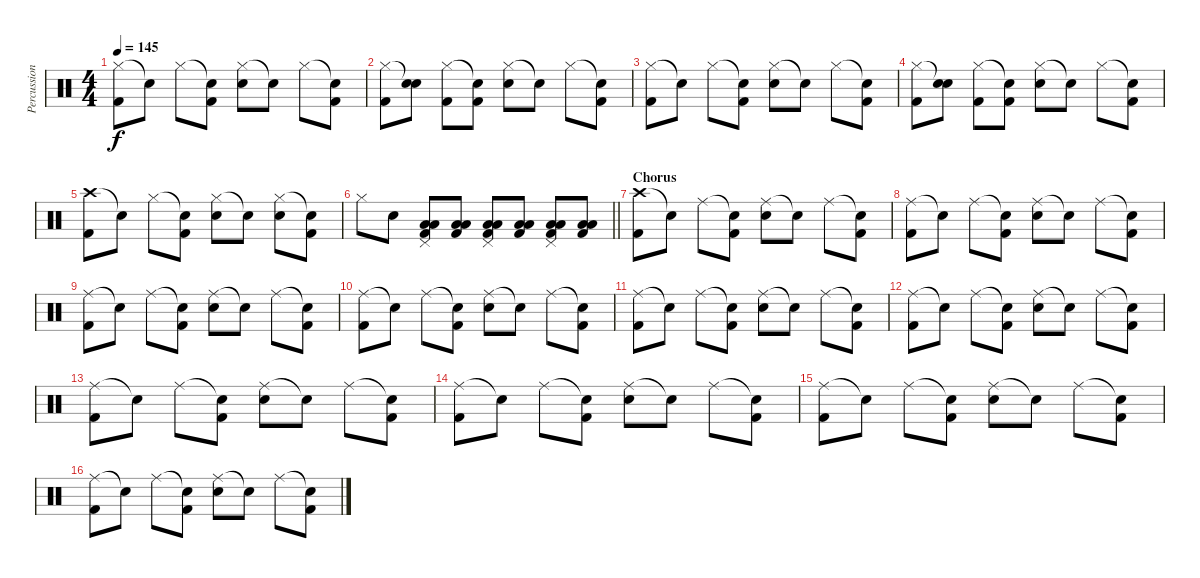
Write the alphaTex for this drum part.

\track ("Percussion" "Percussion") {instrument percussion}
\staff {score}
\articulation defaults
\ts (4 4)
\tempo 145
\clef neutral
\ks c
("Hi-Hat (closed)" "Kick (hit) 2").8{dy f} "Snare (hit)"{t}.8 "Hi-Hat (closed)".8 ("Snare (hit)"{t} "Kick (hit) 2").8 ("Hi-Hat (closed)" "Electric Snare (hit)").8 "Snare (hit)"{t}.8 "Hi-Hat (closed)".8 ("Snare (hit)"{t} "Kick (hit) 2").8 |
("Hi-Hat (closed)" "Kick (hit) 2").8 ("Snare (hit)"{t} "Electric Snare (hit)").8 ("Hi-Hat (closed)" "Kick (hit) 2").8 ("Snare (hit)"{t} "Kick (hit) 2").8 ("Hi-Hat (closed)" "Electric Snare (hit)").8 "Snare (hit)"{t}.8 "Hi-Hat (closed)".8 ("Snare (hit)"{t} "Kick (hit) 2").8 |
("Hi-Hat (closed)" "Kick (hit) 2").8 "Snare (hit)"{t}.8 "Hi-Hat (closed)".8 ("Snare (hit)"{t} "Kick (hit) 2").8 ("Hi-Hat (closed)" "Electric Snare (hit)").8 "Snare (hit)"{t}.8 "Hi-Hat (closed)".8 ("Snare (hit)"{t} "Kick (hit) 2").8 |
("Hi-Hat (closed)" "Kick (hit) 2").8 ("Snare (hit)"{t} "Electric Snare (hit)").8 ("Hi-Hat (closed)" "Kick (hit) 2").8 ("Snare (hit)"{t} "Kick (hit) 2").8 ("Hi-Hat (closed)" "Electric Snare (hit)").8 "Snare (hit)"{t}.8 "Hi-Hat (closed)".8 ("Snare (hit)"{t} "Kick (hit) 2").8 |
("Crash high (hit)" "Kick (hit) 2").8 "Snare (hit)"{t}.8 "Hi-Hat (closed)".8 ("Snare (hit)"{t} "Kick (hit) 2").8 ("Hi-Hat (closed)" "Electric Snare (hit)").8 "Snare (hit)"{t}.8 ("Hi-Hat (closed)" "Electric Snare (hit)").8 ("Snare (hit)"{t} "Kick (hit) 2").8 |
\barLineRight lightlight "Hi-Hat (closed)".8 "Electric Snare (hit)".8
("Pedal Hi-Hat (hit)" "Low Tom (hit)" "Low Floor Tom (hit)" "Kick (hit) 2").8 ("Low Tom (hit)" "Low Floor Tom (hit)" "Kick (hit) 2").8 ("Pedal Hi-Hat (hit)" "Low Tom (hit)" "Low Floor Tom (hit)" "Kick (hit) 2").8 ("Low Tom (hit)" "Low Floor Tom (hit)" "Kick (hit) 2").8 ("Pedal Hi-Hat (hit)" "Low Tom (hit)" "Low Floor Tom (hit)" "Kick (hit) 2").8 ("Low Tom (hit)" "Low Floor Tom (hit)" "Kick (hit) 2").8 |
\section ("" "Chorus")
("Crash high (hit)" "Kick (hit) 2").8 "Snare (hit)"{t}.8 "Ride (middle)".8 ("Snare (hit)"{t} "Kick (hit) 2").8 ("Ride (middle)" "Electric Snare (hit)").8 "Snare (hit)"{t}.8 "Ride (middle)".8 ("Snare (hit)"{t} "Kick (hit) 2").8 |
("Ride (middle)" "Kick (hit) 2").8 "Snare (hit)"{t}.8 "Ride (middle)".8 ("Snare (hit)"{t} "Kick (hit) 2").8 ("Ride (middle)" "Electric Snare (hit)").8 "Snare (hit)"{t}.8 "Ride (middle)".8 ("Snare (hit)"{t} "Kick (hit) 2").8 |
("Ride (middle)" "Kick (hit) 2").8 "Snare (hit)"{t}.8 "Ride (middle)".8 ("Snare (hit)"{t} "Kick (hit) 2").8 ("Ride (middle)" "Electric Snare (hit)").8 "Snare (hit)"{t}.8 "Ride (middle)".8 ("Snare (hit)"{t} "Kick (hit) 2").8 |
("Ride (middle)" "Kick (hit) 2").8 "Snare (hit)"{t}.8 "Ride (middle)".8 ("Snare (hit)"{t} "Kick (hit) 2").8 ("Ride (middle)" "Electric Snare (hit)").8 "Snare (hit)"{t}.8 "Ride (middle)".8 ("Snare (hit)"{t} "Kick (hit) 2").8 |
("Ride (middle)" "Kick (hit) 2").8 "Snare (hit)"{t}.8 "Ride (middle)".8 ("Snare (hit)"{t} "Kick (hit) 2").8 ("Ride (middle)" "Electric Snare (hit)").8 "Snare (hit)"{t}.8 "Ride (middle)".8 ("Snare (hit)"{t} "Kick (hit) 2").8 |
("Ride (middle)" "Kick (hit) 2").8 "Snare (hit)"{t}.8 "Ride (middle)".8 ("Snare (hit)"{t} "Kick (hit) 2").8 ("Ride (middle)" "Electric Snare (hit)").8 "Snare (hit)"{t}.8 "Ride (middle)".8 ("Snare (hit)"{t} "Kick (hit) 2").8 |
("Ride (middle)" "Kick (hit) 2").8 "Snare (hit)"{t}.8 "Ride (middle)".8 ("Snare (hit)"{t} "Kick (hit) 2").8 ("Ride (middle)" "Electric Snare (hit)").8 "Snare (hit)"{t}.8 "Ride (middle)".8 ("Snare (hit)"{t} "Kick (hit) 2").8 |
("Ride (middle)" "Kick (hit) 2").8 "Snare (hit)"{t}.8 "Ride (middle)".8 ("Snare (hit)"{t} "Kick (hit) 2").8 ("Ride (middle)" "Electric Snare (hit)").8 "Snare (hit)"{t}.8 "Ride (middle)".8 ("Snare (hit)"{t} "Kick (hit) 2").8 |
("Ride (middle)" "Kick (hit) 2").8 "Snare (hit)"{t}.8 "Ride (middle)".8 ("Snare (hit)"{t} "Kick (hit) 2").8 ("Ride (middle)" "Electric Snare (hit)").8 "Snare (hit)"{t}.8 "Ride (middle)".8 ("Snare (hit)"{t} "Kick (hit) 2").8 |
("Ride (middle)" "Kick (hit) 2").8 "Snare (hit)"{t}.8 "Ride (middle)".8 ("Snare (hit)"{t} "Kick (hit) 2").8 ("Ride (middle)" "Electric Snare (hit)").8 "Snare (hit)"{t}.8 "Ride (middle)".8 ("Snare (hit)"{t} "Kick (hit) 2").8
